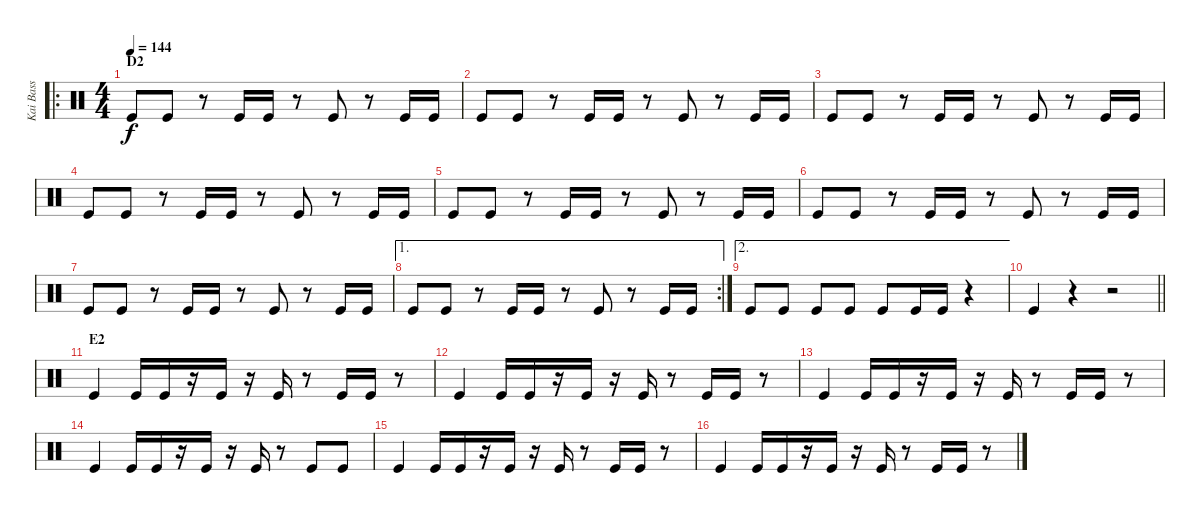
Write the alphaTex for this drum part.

\track ("Kai Bass" "Kai Bass") {instrument percussion}
\staff {score}
\articulation defaults
\ro
\ts (4 4)
\section ("" "D2")
\tempo 144
\clef neutral
\ks c "Kick (hit)".8{dy f} "Kick (hit)".8
r.8 "Kick (hit)".16 "Kick (hit)".16 r.8 "Kick (hit)".8 r.8 "Kick (hit)".16 "Kick (hit)".16 |
"Kick (hit)".8 "Kick (hit)".8 r.8 "Kick (hit)".16 "Kick (hit)".16 r.8 "Kick (hit)".8 r.8 "Kick (hit)".16 "Kick (hit)".16 |
"Kick (hit)".8 "Kick (hit)".8 r.8 "Kick (hit)".16 "Kick (hit)".16 r.8 "Kick (hit)".8 r.8 "Kick (hit)".16 "Kick (hit)".16 |
"Kick (hit)".8 "Kick (hit)".8 r.8 "Kick (hit)".16 "Kick (hit)".16 r.8 "Kick (hit)".8 r.8 "Kick (hit)".16 "Kick (hit)".16 |
"Kick (hit)".8 "Kick (hit)".8 r.8 "Kick (hit)".16 "Kick (hit)".16 r.8 "Kick (hit)".8 r.8 "Kick (hit)".16 "Kick (hit)".16 |
"Kick (hit)".8 "Kick (hit)".8 r.8 "Kick (hit)".16 "Kick (hit)".16 r.8 "Kick (hit)".8 r.8 "Kick (hit)".16 "Kick (hit)".16 |
"Kick (hit)".8 "Kick (hit)".8 r.8 "Kick (hit)".16 "Kick (hit)".16 r.8 "Kick (hit)".8 r.8 "Kick (hit)".16 "Kick (hit)".16 |
\ae 1
\rc 2 "Kick (hit)".8 "Kick (hit)".8
r.8 "Kick (hit)".16 "Kick (hit)".16 r.8 "Kick (hit)".8 r.8 "Kick (hit)".16 "Kick (hit)".16 |
\ae 2 "Kick (hit)".8 "Kick (hit)".8 "Kick (hit)".8 "Kick (hit)".8 "Kick (hit)".8 "Kick (hit)".16 "Kick (hit)".16
r.4 |
\barLineRight lightlight "Kick (hit)".4
r.4 r.2 |
\section ("" "E2")
"Kick (hit)".4 "Kick (hit)".16 "Kick (hit)".16 r.16 "Kick (hit)".16 r.16 "Kick (hit)".16 r.8 "Kick (hit)".16 "Kick (hit)".16 r.8 |
"Kick (hit)".4 "Kick (hit)".16 "Kick (hit)".16 r.16 "Kick (hit)".16 r.16 "Kick (hit)".16 r.8 "Kick (hit)".16 "Kick (hit)".16 r.8 |
"Kick (hit)".4 "Kick (hit)".16 "Kick (hit)".16 r.16 "Kick (hit)".16 r.16 "Kick (hit)".16 r.8 "Kick (hit)".16 "Kick (hit)".16 r.8 |
"Kick (hit)".4 "Kick (hit)".16 "Kick (hit)".16 r.16 "Kick (hit)".16 r.16 "Kick (hit)".16 r.8 "Kick (hit)".8 "Kick (hit)".8 |
"Kick (hit)".4 "Kick (hit)".16 "Kick (hit)".16 r.16 "Kick (hit)".16 r.16 "Kick (hit)".16 r.8 "Kick (hit)".16 "Kick (hit)".16 r.8 |
"Kick (hit)".4 "Kick (hit)".16 "Kick (hit)".16 r.16 "Kick (hit)".16 r.16 "Kick (hit)".16 r.8 "Kick (hit)".16 "Kick (hit)".16 r.8
